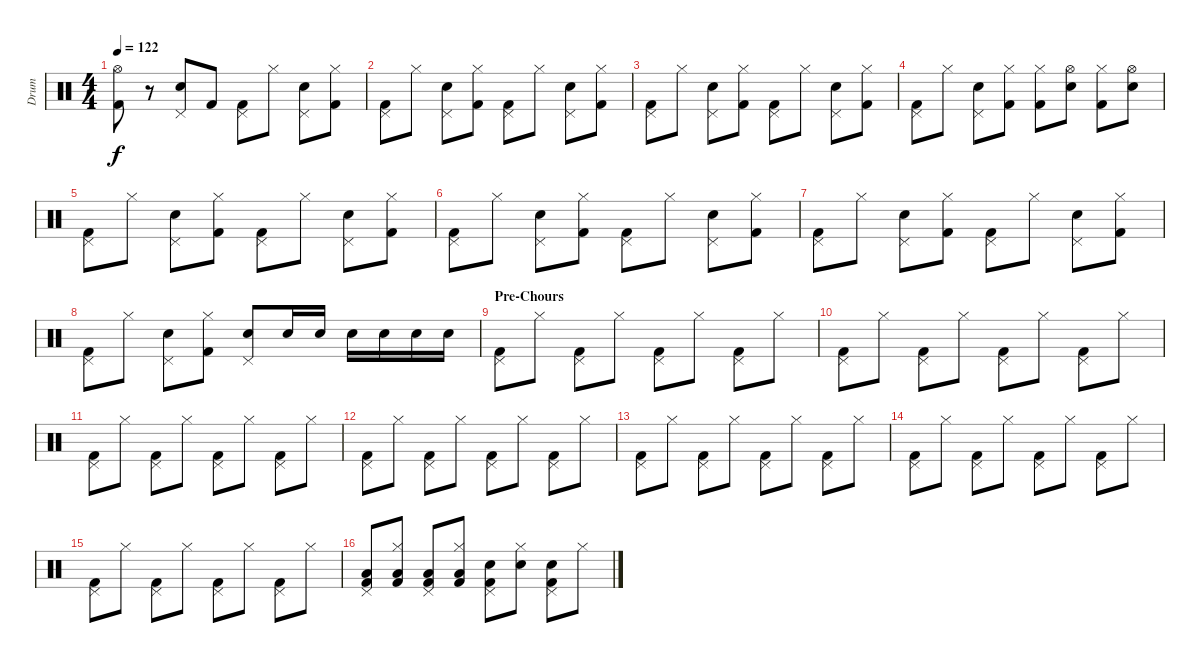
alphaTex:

\track ("Drum" "Drum") {instrument percussion}
\staff {score}
\articulation defaults
\ts (4 4)
\tempo 122
\clef neutral
\ks c
("Hi-Hat (open)" "Kick (hit) 2").8{dy f} r.8 ("Pedal Hi-Hat (hit)" "Electric Snare (hit)").8 "Kick (hit) 2".8 ("Pedal Hi-Hat (hit)" "Kick (hit) 2").8 "Hi-Hat (closed)".8 ("Pedal Hi-Hat (hit)" "Electric Snare (hit)").8 ("Hi-Hat (closed)" "Kick (hit) 2").8 |
("Pedal Hi-Hat (hit)" "Kick (hit) 2").8 "Hi-Hat (closed)".8 ("Pedal Hi-Hat (hit)" "Electric Snare (hit)").8 ("Hi-Hat (closed)" "Kick (hit) 2").8 ("Pedal Hi-Hat (hit)" "Kick (hit) 2").8 "Hi-Hat (closed)".8 ("Pedal Hi-Hat (hit)" "Electric Snare (hit)").8 ("Hi-Hat (closed)" "Kick (hit) 2").8 |
("Pedal Hi-Hat (hit)" "Kick (hit) 2").8 "Hi-Hat (closed)".8 ("Pedal Hi-Hat (hit)" "Electric Snare (hit)").8 ("Hi-Hat (closed)" "Kick (hit) 2").8 ("Pedal Hi-Hat (hit)" "Kick (hit) 2").8 "Hi-Hat (closed)".8 ("Pedal Hi-Hat (hit)" "Electric Snare (hit)").8 ("Hi-Hat (closed)" "Kick (hit) 2").8 |
("Pedal Hi-Hat (hit)" "Kick (hit) 2").8 "Hi-Hat (closed)".8 ("Pedal Hi-Hat (hit)" "Electric Snare (hit)").8 ("Hi-Hat (closed)" "Kick (hit) 2").8 ("Hi-Hat (closed)" "Kick (hit) 2").8 ("Hi-Hat (open)" "Electric Snare (hit)").8 ("Hi-Hat (closed)" "Kick (hit) 2").8 ("Hi-Hat (open)" "Electric Snare (hit)").8 |
("Pedal Hi-Hat (hit)" "Kick (hit) 2").8 "Hi-Hat (closed)".8 ("Pedal Hi-Hat (hit)" "Electric Snare (hit)").8 ("Hi-Hat (closed)" "Kick (hit) 2").8 ("Pedal Hi-Hat (hit)" "Kick (hit) 2").8 "Hi-Hat (closed)".8 ("Pedal Hi-Hat (hit)" "Electric Snare (hit)").8 ("Hi-Hat (closed)" "Kick (hit) 2").8 |
("Pedal Hi-Hat (hit)" "Kick (hit) 2").8 "Hi-Hat (closed)".8 ("Pedal Hi-Hat (hit)" "Electric Snare (hit)").8 ("Hi-Hat (closed)" "Kick (hit) 2").8 ("Pedal Hi-Hat (hit)" "Kick (hit) 2").8 "Hi-Hat (closed)".8 ("Pedal Hi-Hat (hit)" "Electric Snare (hit)").8 ("Hi-Hat (closed)" "Kick (hit) 2").8 |
("Pedal Hi-Hat (hit)" "Kick (hit) 2").8 "Hi-Hat (closed)".8 ("Pedal Hi-Hat (hit)" "Electric Snare (hit)").8 ("Hi-Hat (closed)" "Kick (hit) 2").8 ("Pedal Hi-Hat (hit)" "Kick (hit) 2").8 "Hi-Hat (closed)".8 ("Pedal Hi-Hat (hit)" "Electric Snare (hit)").8 ("Hi-Hat (closed)" "Kick (hit) 2").8 |
("Pedal Hi-Hat (hit)" "Kick (hit) 2").8 "Hi-Hat (closed)".8 ("Pedal Hi-Hat (hit)" "Electric Snare (hit)").8 ("Hi-Hat (closed)" "Kick (hit) 2").8 ("Pedal Hi-Hat (hit)" "Electric Snare (hit)").8 "Electric Snare (hit)".16 "Electric Snare (hit)".16 "Electric Snare (hit)".16 "Electric Snare (hit)".16 "Electric Snare (hit)".16 "Electric Snare (hit)".16 |
\section ("" "Pre-Chours")
("Pedal Hi-Hat (hit)" "Kick (hit) 2").8 "Hi-Hat (closed)".8 ("Pedal Hi-Hat (hit)" "Kick (hit) 2").8 "Hi-Hat (closed)".8 ("Pedal Hi-Hat (hit)" "Kick (hit) 2").8 "Hi-Hat (closed)".8 ("Pedal Hi-Hat (hit)" "Kick (hit) 2").8 "Hi-Hat (closed)".8 |
("Pedal Hi-Hat (hit)" "Kick (hit) 2").8 "Hi-Hat (closed)".8 ("Pedal Hi-Hat (hit)" "Kick (hit) 2").8 "Hi-Hat (closed)".8 ("Pedal Hi-Hat (hit)" "Kick (hit) 2").8 "Hi-Hat (closed)".8 ("Pedal Hi-Hat (hit)" "Kick (hit) 2").8 "Hi-Hat (closed)".8 |
("Pedal Hi-Hat (hit)" "Kick (hit) 2").8 "Hi-Hat (closed)".8 ("Pedal Hi-Hat (hit)" "Kick (hit) 2").8 "Hi-Hat (closed)".8 ("Pedal Hi-Hat (hit)" "Kick (hit) 2").8 "Hi-Hat (closed)".8 ("Pedal Hi-Hat (hit)" "Kick (hit) 2").8 "Hi-Hat (closed)".8 |
("Pedal Hi-Hat (hit)" "Kick (hit) 2").8 "Hi-Hat (closed)".8 ("Pedal Hi-Hat (hit)" "Kick (hit) 2").8 "Hi-Hat (closed)".8 ("Pedal Hi-Hat (hit)" "Kick (hit) 2").8 "Hi-Hat (closed)".8 ("Pedal Hi-Hat (hit)" "Kick (hit) 2").8 "Hi-Hat (closed)".8 |
("Pedal Hi-Hat (hit)" "Kick (hit) 2").8 "Hi-Hat (closed)".8 ("Pedal Hi-Hat (hit)" "Kick (hit) 2").8 "Hi-Hat (closed)".8 ("Pedal Hi-Hat (hit)" "Kick (hit) 2").8 "Hi-Hat (closed)".8 ("Pedal Hi-Hat (hit)" "Kick (hit) 2").8 "Hi-Hat (closed)".8 |
("Pedal Hi-Hat (hit)" "Kick (hit) 2").8 "Hi-Hat (closed)".8 ("Pedal Hi-Hat (hit)" "Kick (hit) 2").8 "Hi-Hat (closed)".8 ("Pedal Hi-Hat (hit)" "Kick (hit) 2").8 "Hi-Hat (closed)".8 ("Pedal Hi-Hat (hit)" "Kick (hit) 2").8 "Hi-Hat (closed)".8 |
("Pedal Hi-Hat (hit)" "Kick (hit) 2").8 "Hi-Hat (closed)".8 ("Pedal Hi-Hat (hit)" "Kick (hit) 2").8 "Hi-Hat (closed)".8 ("Pedal Hi-Hat (hit)" "Kick (hit) 2").8 "Hi-Hat (closed)".8 ("Pedal Hi-Hat (hit)" "Kick (hit) 2").8 "Hi-Hat (closed)".8 |
("Pedal Hi-Hat (hit)" "Low Tom (hit)" "Kick (hit) 2").8 ("Hi-Hat (closed)" "Low Tom (hit)" "Kick (hit) 2").8 ("Pedal Hi-Hat (hit)" "Low Tom (hit)" "Kick (hit) 2").8 ("Hi-Hat (closed)" "Low Tom (hit)" "Kick (hit) 2").8 ("Pedal Hi-Hat (hit)" "Electric Snare (hit)" "Kick (hit) 2").8 ("Hi-Hat (closed)" "Electric Snare (hit)").8 ("Pedal Hi-Hat (hit)" "Electric Snare (hit)" "Kick (hit) 2").8 "Hi-Hat (closed)".8
